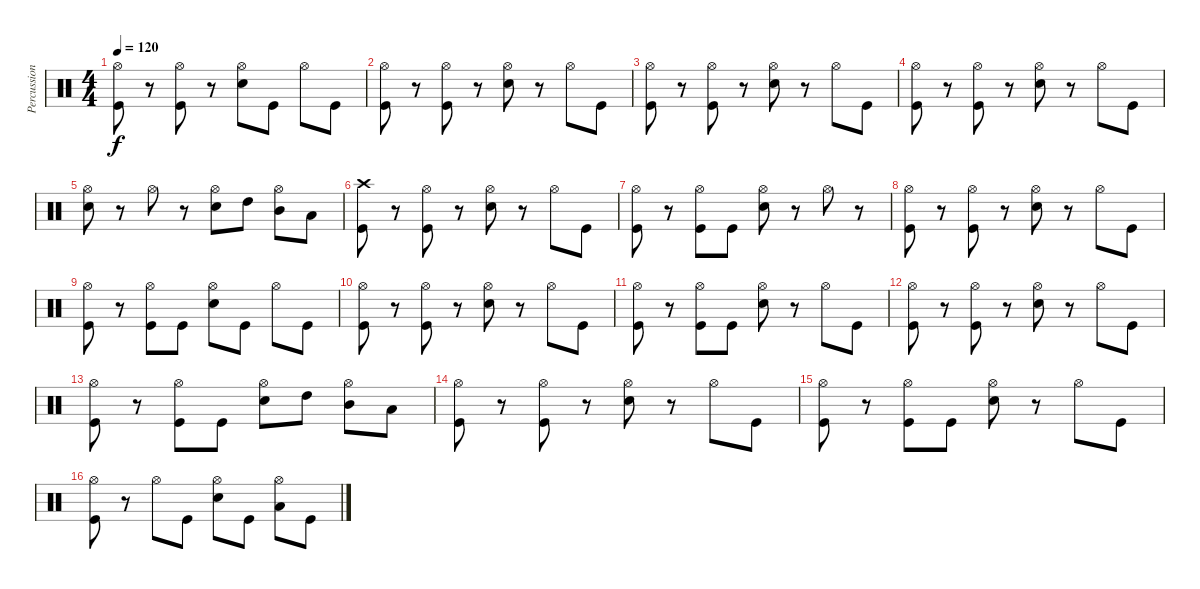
\track ("Percussion" "Percussion") {instrument percussion}
\staff {score}
\articulation defaults
\ts (4 4)
\tempo 120
\clef neutral
\ks c
("Hi-Hat (open)" "Kick (hit)").8{dy f} r.8 ("Hi-Hat (open)" "Kick (hit)").8 r.8 ("Hi-Hat (open)" "Electric Snare (hit)").8 "Kick (hit)".8 "Hi-Hat (open)".8 "Kick (hit)".8 |
("Hi-Hat (open)" "Kick (hit)").8 r.8 ("Hi-Hat (open)" "Kick (hit)").8 r.8 ("Hi-Hat (open)" "Electric Snare (hit)").8 r.8 "Hi-Hat (open)".8 "Kick (hit)".8 |
("Hi-Hat (open)" "Kick (hit)").8 r.8 ("Hi-Hat (open)" "Kick (hit)").8 r.8 ("Hi-Hat (open)" "Electric Snare (hit)").8 r.8 "Hi-Hat (open)".8 "Kick (hit)".8 |
("Hi-Hat (open)" "Kick (hit)").8 r.8 ("Hi-Hat (open)" "Kick (hit)").8 r.8 ("Hi-Hat (open)" "Electric Snare (hit)").8 r.8 "Hi-Hat (open)".8 "Kick (hit)".8 |
("Hi-Hat (open)" "Electric Snare (hit)").8 r.8 "Hi-Hat (open)".8 r.8 ("Hi-Hat (open)" "Electric Snare (hit)").8 "High Tom (hit)".8 ("Hi-Hat (open)" "Mid Tom (hit)").8 "Low Floor Tom (hit)".8 |
("Crash high (hit)" "Kick (hit)").8 r.8 ("Hi-Hat (open)" "Kick (hit)").8 r.8 ("Hi-Hat (open)" "Electric Snare (hit)").8 r.8 "Hi-Hat (open)".8 "Kick (hit)".8 |
("Hi-Hat (open)" "Kick (hit)").8 r.8 ("Hi-Hat (open)" "Kick (hit)").8 "Kick (hit)".8 ("Hi-Hat (open)" "Electric Snare (hit)").8 r.8 "Hi-Hat (open)".8 r.8 |
("Hi-Hat (open)" "Kick (hit)").8 r.8 ("Hi-Hat (open)" "Kick (hit)").8 r.8 ("Hi-Hat (open)" "Electric Snare (hit)").8 r.8 "Hi-Hat (open)".8 "Kick (hit)".8 |
("Hi-Hat (open)" "Kick (hit)").8 r.8 ("Hi-Hat (open)" "Kick (hit)").8 "Kick (hit)".8 ("Hi-Hat (open)" "Electric Snare (hit)").8 "Kick (hit)".8 "Hi-Hat (open)".8 "Kick (hit)".8 |
("Hi-Hat (open)" "Kick (hit)").8 r.8 ("Hi-Hat (open)" "Kick (hit)").8 r.8 ("Hi-Hat (open)" "Electric Snare (hit)").8 r.8 "Hi-Hat (open)".8 "Kick (hit)".8 |
("Hi-Hat (open)" "Kick (hit)").8 r.8 ("Hi-Hat (open)" "Kick (hit)").8 "Kick (hit)".8 ("Hi-Hat (open)" "Electric Snare (hit)").8 r.8 "Hi-Hat (open)".8 "Kick (hit)".8 |
("Hi-Hat (open)" "Kick (hit)").8 r.8 ("Hi-Hat (open)" "Kick (hit)").8 r.8 ("Hi-Hat (open)" "Electric Snare (hit)").8 r.8 "Hi-Hat (open)".8 "Kick (hit)".8 |
("Hi-Hat (open)" "Kick (hit)").8 r.8 ("Hi-Hat (open)" "Kick (hit)").8 "Kick (hit)".8 ("Hi-Hat (open)" "Electric Snare (hit)").8 "High Tom (hit)".8 ("Hi-Hat (open)" "Mid Tom (hit)").8 "Low Floor Tom (hit)".8 |
("Hi-Hat (open)" "Kick (hit)").8 r.8 ("Hi-Hat (open)" "Kick (hit)").8 r.8 ("Hi-Hat (open)" "Electric Snare (hit)").8 r.8 "Hi-Hat (open)".8 "Kick (hit)".8 |
("Hi-Hat (open)" "Kick (hit)").8 r.8 ("Hi-Hat (open)" "Kick (hit)").8 "Kick (hit)".8 ("Hi-Hat (open)" "Electric Snare (hit)").8 r.8 "Hi-Hat (open)".8 "Kick (hit)".8 |
("Hi-Hat (open)" "Kick (hit)").8 r.8 "Hi-Hat (open)".8 "Kick (hit)".8 ("Hi-Hat (open)" "Electric Snare (hit)").8 "Kick (hit)".8 ("Hi-Hat (open)" "Low Floor Tom (hit)").8 "Kick (hit)".8
